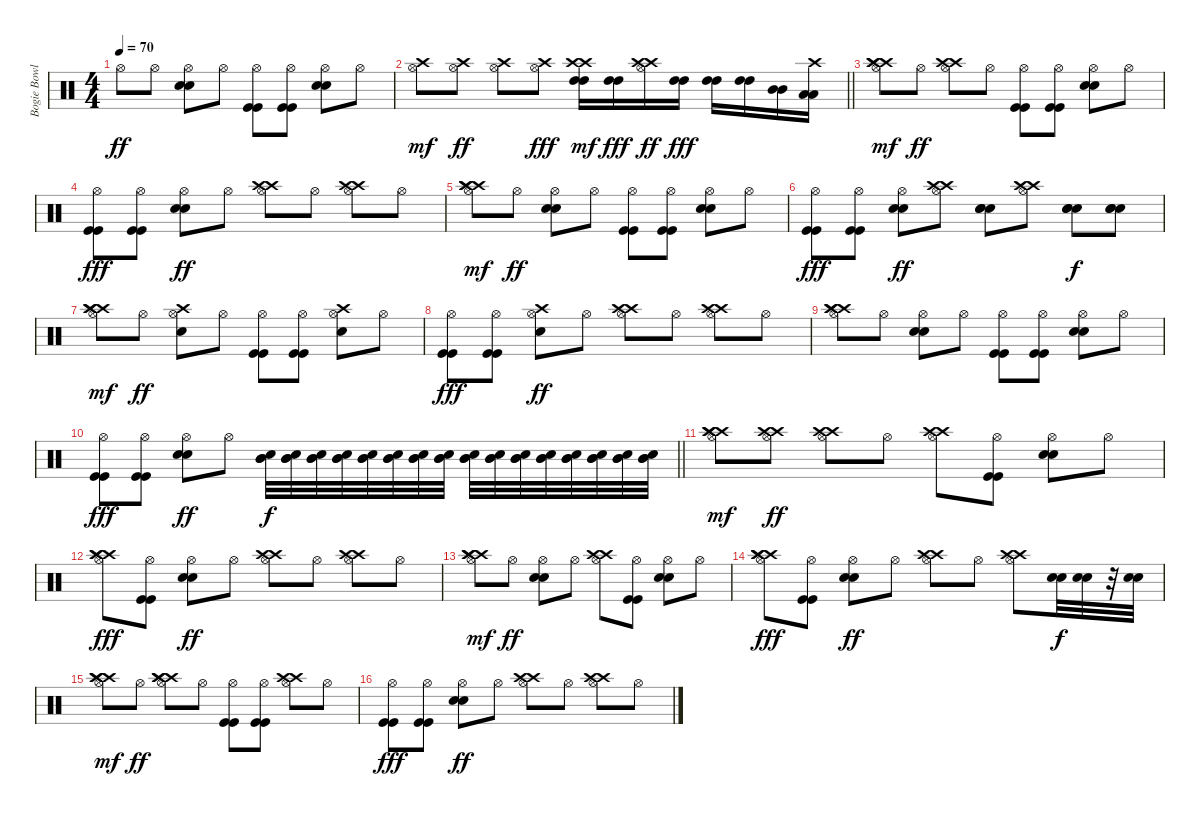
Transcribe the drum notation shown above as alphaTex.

\track ("Bogie Bowles - Drums" "Bogie Bowl") {instrument percussion}
\staff {score}
\articulation defaults
\ts (4 4)
\tempo 70
\clef neutral
\ks c "Hi-Hat (open)".8{dy ff} "Hi-Hat (open)".8
("Hi-Hat (open)" "Snare (hit) 2" "Snare (hit) 2").8 "Hi-Hat (open)".8 ("Hi-Hat (open)" "Kick (hit)" "Kick (hit)").8 ("Hi-Hat (open)" "Kick (hit)" "Kick (hit)").8 ("Hi-Hat (open)" "Snare (hit) 2" "Snare (hit) 2").8 "Hi-Hat (open)".8 |
\barLineRight lightlight
("Hi-Hat (open)" "Crash high (hit)").8{dy mf} ("Hi-Hat (open)" "Crash high (hit)").8{dy ff} ("Hi-Hat (open)" "Crash high (hit)").8 ("Hi-Hat (open)" "Crash high (hit)").8{dy fff} ("High Tom (hit)" "High Tom (hit)" "Crash high (hit)" "Crash high (hit)").16{dy mf} ("High Tom (hit)" "High Tom (hit)").16{dy fff} ("Hi-Hat (open)" "Crash high (hit)" "Crash high (hit)").16{dy ff} ("High Tom (hit)" "High Tom (hit)").16{dy fff} ("High Tom (hit)" "High Tom (hit)").16 ("High Tom (hit)" "High Tom (hit)").16 ("Mid Tom (hit)" "Mid Tom (hit)").16 ("Low Tom (hit)" "Low Tom (hit)" "Crash high (hit)").16 |
("Hi-Hat (open)" "Crash high (hit)" "Crash high (hit)" "Crash high (hit)").8{dy mf} "Hi-Hat (open)".8{dy ff} ("Hi-Hat (open)" "Crash high (hit)" "Crash high (hit)").8 "Hi-Hat (open)".8 ("Hi-Hat (open)" "Kick (hit)" "Kick (hit)").8 ("Hi-Hat (open)" "Kick (hit)" "Kick (hit)").8 ("Hi-Hat (open)" "Snare (hit) 2" "Snare (hit) 2").8 "Hi-Hat (open)".8 |
("Hi-Hat (open)" "Kick (hit)" "Kick (hit)").8{dy fff} ("Hi-Hat (open)" "Kick (hit)" "Kick (hit)").8 ("Hi-Hat (open)" "Snare (hit) 2" "Snare (hit) 2").8{dy ff} "Hi-Hat (open)".8 ("Hi-Hat (open)" "Crash high (hit)" "Crash high (hit)").8 "Hi-Hat (open)".8 ("Hi-Hat (open)" "Crash high (hit)" "Crash high (hit)").8 "Hi-Hat (open)".8 |
("Hi-Hat (open)" "Crash high (hit)" "Crash high (hit)" "Crash high (hit)").8{dy mf} "Hi-Hat (open)".8{dy ff} ("Hi-Hat (open)" "Snare (hit) 2" "Snare (hit) 2").8 "Hi-Hat (open)".8 ("Hi-Hat (open)" "Kick (hit)" "Kick (hit)").8 ("Hi-Hat (open)" "Kick (hit)" "Kick (hit)").8 ("Hi-Hat (open)" "Snare (hit) 2" "Snare (hit) 2").8 "Hi-Hat (open)".8 |
("Hi-Hat (open)" "Kick (hit)" "Kick (hit)").8{dy fff} ("Hi-Hat (open)" "Kick (hit)" "Kick (hit)").8 ("Hi-Hat (open)" "Snare (hit) 2" "Snare (hit) 2").8{dy ff} ("Hi-Hat (open)" "Crash high (hit)" "Crash high (hit)").8 ("Snare (hit) 2" "Snare (hit) 2" "Snare (hit) 2").8 ("Hi-Hat (open)" "Crash high (hit)" "Crash high (hit)").8 ("Snare (hit) 2" "Snare (hit) 2" "Snare (hit) 2").8{dy f} ("Snare (hit) 2" "Snare (hit) 2" "Snare (hit) 2").8 |
("Hi-Hat (open)" "Crash high (hit)" "Crash high (hit)" "Crash high (hit)").8{dy mf} "Hi-Hat (open)".8{dy ff} ("Hi-Hat (open)" "Snare (hit) 2" "Crash high (hit)").8 "Hi-Hat (open)".8 ("Hi-Hat (open)" "Kick (hit)" "Kick (hit)").8 ("Hi-Hat (open)" "Kick (hit)" "Kick (hit)").8 ("Hi-Hat (open)" "Snare (hit) 2" "Crash high (hit)").8 "Hi-Hat (open)".8 |
("Hi-Hat (open)" "Kick (hit)" "Kick (hit)").8{dy fff} ("Hi-Hat (open)" "Kick (hit)" "Kick (hit)").8 ("Hi-Hat (open)" "Snare (hit) 2" "Crash high (hit)").8{dy ff} "Hi-Hat (open)".8 ("Hi-Hat (open)" "Crash high (hit)" "Crash high (hit)").8 "Hi-Hat (open)".8 ("Hi-Hat (open)" "Crash high (hit)" "Crash high (hit)").8 "Hi-Hat (open)".8 |
("Hi-Hat (open)" "Crash high (hit)" "Crash high (hit)" "Crash high (hit)").8 "Hi-Hat (open)".8 ("Hi-Hat (open)" "Snare (hit) 2" "Snare (hit) 2").8 "Hi-Hat (open)".8 ("Hi-Hat (open)" "Kick (hit)" "Kick (hit)").8 ("Hi-Hat (open)" "Kick (hit)" "Kick (hit)").8 ("Hi-Hat (open)" "Snare (hit) 2" "Snare (hit) 2").8 "Hi-Hat (open)".8 |
\barLineRight lightlight
("Hi-Hat (open)" "Kick (hit)" "Kick (hit)").8{dy fff} ("Hi-Hat (open)" "Kick (hit)" "Kick (hit)").8 ("Hi-Hat (open)" "Snare (hit) 2" "Snare (hit) 2").8{dy ff} "Hi-Hat (open)".8 ("Mid Tom (hit)" "Mid Tom (hit)" "Snare (hit) 2").32{dy f} ("Mid Tom (hit)" "Mid Tom (hit)" "Snare (hit) 2").32 ("Mid Tom (hit)" "Mid Tom (hit)" "Snare (hit) 2").32 ("Mid Tom (hit)" "Mid Tom (hit)" "Snare (hit) 2").32 ("Mid Tom (hit)" "Mid Tom (hit)" "Snare (hit) 2").32 ("Mid Tom (hit)" "Mid Tom (hit)" "Snare (hit) 2").32 ("Mid Tom (hit)" "Mid Tom (hit)" "Snare (hit) 2").32 ("Mid Tom (hit)" "Mid Tom (hit)" "Snare (hit) 2").32 ("Mid Tom (hit)" "Mid Tom (hit)" "Snare (hit) 2").32 ("Mid Tom (hit)" "Mid Tom (hit)" "Snare (hit) 2").32 ("Mid Tom (hit)" "Mid Tom (hit)" "Snare (hit) 2").32 ("Mid Tom (hit)" "Mid Tom (hit)" "Snare (hit) 2").32 ("Mid Tom (hit)" "Mid Tom (hit)" "Snare (hit) 2").32 ("Mid Tom (hit)" "Mid Tom (hit)" "Snare (hit) 2").32 ("Mid Tom (hit)" "Mid Tom (hit)" "Snare (hit) 2").32 ("Mid Tom (hit)" "Mid Tom (hit)" "Snare (hit) 2").32 |
("Hi-Hat (open)" "Crash high (hit)" "Crash high (hit)" "Crash high (hit)").8{dy mf} ("Hi-Hat (open)" "Crash high (hit)" "Crash high (hit)").8{dy ff} ("Hi-Hat (open)" "Crash high (hit)" "Crash high (hit)").8 "Hi-Hat (open)".8 ("Hi-Hat (open)" "Crash high (hit)" "Crash high (hit)").8 ("Hi-Hat (open)" "Kick (hit)" "Kick (hit)").8 ("Hi-Hat (open)" "Snare (hit) 2" "Snare (hit) 2").8 "Hi-Hat (open)".8 |
("Hi-Hat (open)" "Crash high (hit)" "Crash high (hit)" "Crash high (hit)").8{dy fff} ("Hi-Hat (open)" "Kick (hit)" "Kick (hit)").8 ("Hi-Hat (open)" "Snare (hit) 2" "Snare (hit) 2").8{dy ff} "Hi-Hat (open)".8 ("Hi-Hat (open)" "Crash high (hit)" "Crash high (hit)").8 "Hi-Hat (open)".8 ("Hi-Hat (open)" "Crash high (hit)" "Crash high (hit)").8 "Hi-Hat (open)".8 |
("Hi-Hat (open)" "Crash high (hit)" "Crash high (hit)" "Crash high (hit)").8{dy mf} "Hi-Hat (open)".8{dy ff} ("Hi-Hat (open)" "Snare (hit) 2" "Snare (hit) 2").8 "Hi-Hat (open)".8 ("Hi-Hat (open)" "Crash high (hit)" "Crash high (hit)").8 ("Hi-Hat (open)" "Kick (hit)" "Kick (hit)").8 ("Hi-Hat (open)" "Snare (hit) 2" "Snare (hit) 2").8 "Hi-Hat (open)".8 |
("Hi-Hat (open)" "Crash high (hit)" "Crash high (hit)" "Crash high (hit)").8{dy fff} ("Hi-Hat (open)" "Kick (hit)" "Kick (hit)").8 ("Hi-Hat (open)" "Snare (hit) 2" "Snare (hit) 2").8{dy ff} "Hi-Hat (open)".8 ("Hi-Hat (open)" "Crash high (hit)" "Crash high (hit)").8 "Hi-Hat (open)".8 ("Hi-Hat (open)" "Crash high (hit)" "Crash high (hit)").8 ("Snare (hit) 2" "Snare (hit) 2").32{dy f} ("Snare (hit) 2" "Snare (hit) 2").32 r.32 ("Snare (hit) 2" "Snare (hit) 2").32 |
("Hi-Hat (open)" "Crash high (hit)" "Crash high (hit)" "Crash high (hit)").8{dy mf} "Hi-Hat (open)".8{dy ff} ("Hi-Hat (open)" "Crash high (hit)" "Crash high (hit)" "Crash high (hit)").8 "Hi-Hat (open)".8 ("Hi-Hat (open)" "Kick (hit)" "Kick (hit)").8 ("Hi-Hat (open)" "Kick (hit)" "Kick (hit)").8 ("Hi-Hat (open)" "Crash high (hit)" "Crash high (hit)").8 "Hi-Hat (open)".8 |
("Hi-Hat (open)" "Kick (hit)" "Kick (hit)").8{dy fff} ("Hi-Hat (open)" "Kick (hit)" "Kick (hit)").8 ("Hi-Hat (open)" "Snare (hit) 2" "Snare (hit) 2").8{dy ff} "Hi-Hat (open)".8 ("Hi-Hat (open)" "Crash high (hit)" "Crash high (hit)").8 "Hi-Hat (open)".8 ("Hi-Hat (open)" "Crash high (hit)" "Crash high (hit)").8 "Hi-Hat (open)".8
